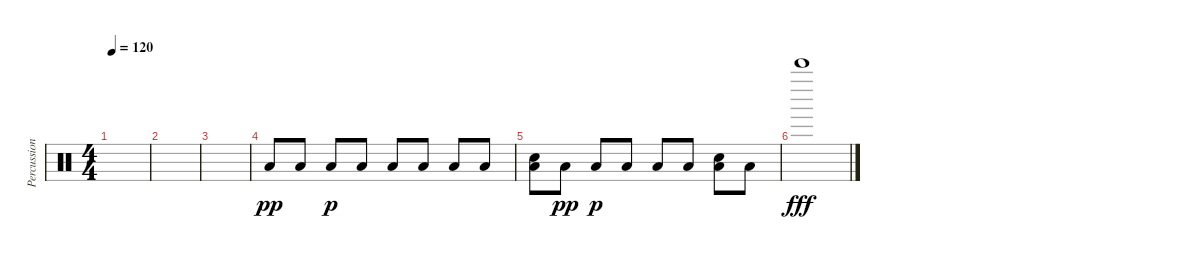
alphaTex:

\track ("Percussion" "Percussion") {instrument percussion}
\staff {score}
\articulation defaults
\ts (4 4)
\tempo 120
\clef neutral
\ks c
|
|
|
"Low Floor Tom (hit)".8{dy pp} "Low Floor Tom (hit)".8 "Low Floor Tom (hit)".8{dy p} "Low Floor Tom (hit)".8 "Low Floor Tom (hit)".8 "Low Floor Tom (hit)".8 "Low Floor Tom (hit)".8 "Low Floor Tom (hit)".8 |
("Low Floor Tom (hit)" "Snare (hit) 2").8 "Low Floor Tom (hit)".8{dy pp} "Low Floor Tom (hit)".8{dy p} "Low Floor Tom (hit)".8 "Low Floor Tom (hit)".8 "Low Floor Tom (hit)".8 ("Low Floor Tom (hit)" "Snare (hit) 2").8 "Low Floor Tom (hit)".8 |
"Bell Tree (hit)".1{dy fff}
